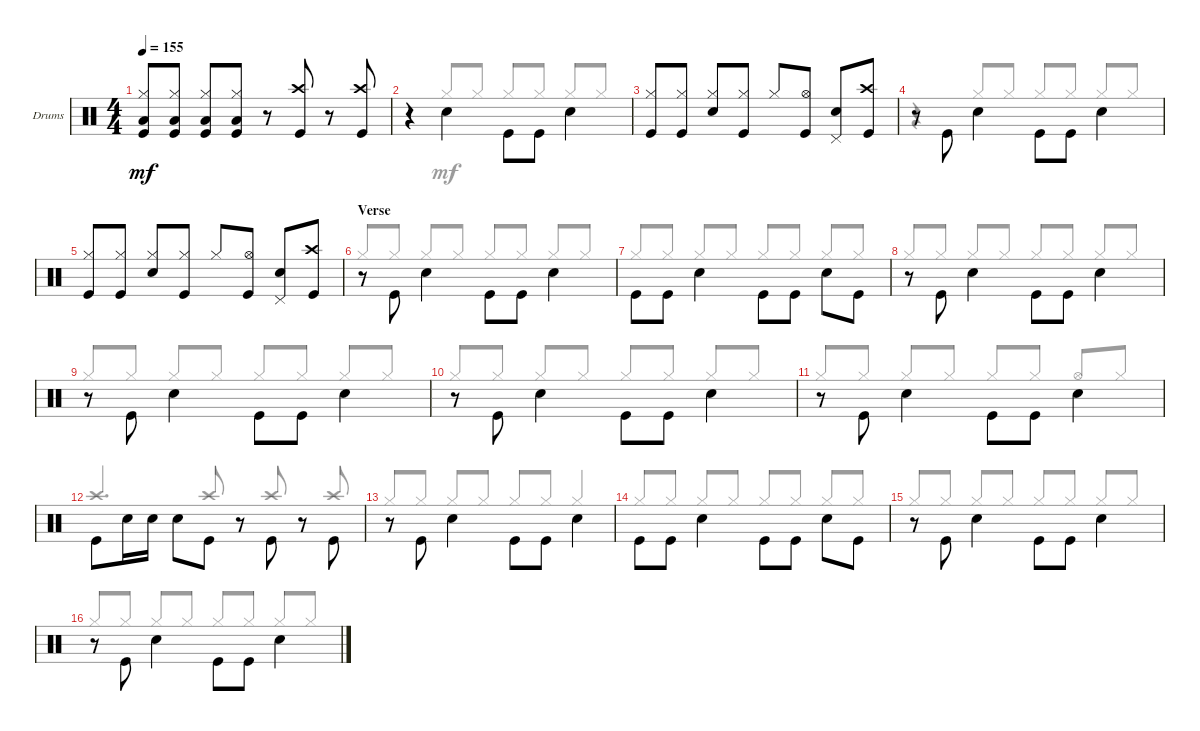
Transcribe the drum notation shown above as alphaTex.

\defaultSystemsLayout 4
\bracketExtendMode groupsimilarinstruments
\firstSystemTrackNameOrientation horizontal
\otherSystemsTrackNameOrientation horizontal
\track ("PETER CRISS" "Drums") {instrument percussion}
\staff {score}
\articulation defaults
\voice
\ts (4 4)
\tempo 155
\clef neutral
\ks c
("Hi-Hat (closed)" "Low Tom (hit)" "Kick (hit)").8{dy mf beam invert} ("Hi-Hat (closed)" "Low Tom (hit)" "Kick (hit)").8 ("Hi-Hat (closed)" "Low Tom (hit)" "Kick (hit)").8{beam invert} ("Hi-Hat (closed)" "Low Tom (hit)" "Kick (hit)").8 r.8 ("Kick (hit)" "Crash high (hit)").8{beam invert} r.8 ("Crash high (hit)" "Kick (hit)").8{beam invert} |
r.4 "Snare (hit) 2".4{beam invert} "Kick (hit)".8{beam invert} "Kick (hit)".8 "Snare (hit) 2".4{beam invert} |
("Hi-Hat (closed)" "Kick (hit)").8{beam invert} ("Hi-Hat (closed)" "Kick (hit)").8 ("Hi-Hat (closed)" "Snare (hit) 2").8{beam invert} ("Hi-Hat (closed)" "Kick (hit)").8 "Hi-Hat (closed)".8{beam invert} ("Hi-Hat (open)" "Kick (hit)").8 ("Pedal Hi-Hat (hit)" "Snare (hit) 2").8{beam invert} ("Crash high (hit)" "Kick (hit)").8 |
r.8 "Kick (hit)".8{beam invert} "Snare (hit) 2".4{beam invert} "Kick (hit)".8{beam invert} "Kick (hit)".8 "Snare (hit) 2".4{beam invert} |
("Hi-Hat (closed)" "Kick (hit)").8{beam invert} ("Hi-Hat (closed)" "Kick (hit)").8 ("Hi-Hat (closed)" "Snare (hit) 2").8{beam invert} ("Hi-Hat (closed)" "Kick (hit)").8 "Hi-Hat (closed)".8{beam invert} ("Hi-Hat (open)" "Kick (hit)").8 ("Pedal Hi-Hat (hit)" "Snare (hit) 2").8{beam invert} ("Crash high (hit)" "Kick (hit)").8 |
\section ("" "Verse")
r.8 "Kick (hit)".8{beam invert} "Snare (hit) 2".4{beam invert} "Kick (hit)".8{beam invert} "Kick (hit)".8 "Snare (hit) 2".4{beam invert} |
"Kick (hit)".8{beam invert} "Kick (hit)".8 "Snare (hit) 2".4{beam invert} "Kick (hit)".8{beam invert} "Kick (hit)".8 "Snare (hit) 2".8{beam invert} "Kick (hit)".8 |
r.8 "Kick (hit)".8{beam invert} "Snare (hit) 2".4{beam invert} "Kick (hit)".8{beam invert} "Kick (hit)".8 "Snare (hit) 2".4{beam invert} |
r.8 "Kick (hit)".8{beam invert} "Snare (hit) 2".4{beam invert} "Kick (hit)".8{beam invert} "Kick (hit)".8 "Snare (hit) 2".4{beam invert} |
r.8 "Kick (hit)".8{beam invert} "Snare (hit) 2".4{beam invert} "Kick (hit)".8{beam invert} "Kick (hit)".8 "Snare (hit) 2".4{beam invert} |
r.8 "Kick (hit)".8{beam invert} "Snare (hit) 2".4{beam invert} "Kick (hit)".8{beam invert} "Kick (hit)".8 "Snare (hit) 2".4{beam invert} |
"Kick (hit)".8{beam invert} "Snare (hit) 2".16 "Snare (hit) 2".16 "Snare (hit) 2".8{beam invert} "Kick (hit)".8 r.8 "Kick (hit)".8{beam invert} r.8 "Kick (hit)".8{beam invert} |
r.8 "Kick (hit)".8{beam invert} "Snare (hit) 2".4{beam invert} "Kick (hit)".8{beam invert} "Kick (hit)".8 "Snare (hit) 2".4{beam invert} |
"Kick (hit)".8{beam invert} "Kick (hit)".8 "Snare (hit) 2".4{beam invert} "Kick (hit)".8{beam invert} "Kick (hit)".8 "Snare (hit) 2".8{beam invert} "Kick (hit)".8 |
r.8 "Kick (hit)".8{beam invert} "Snare (hit) 2".4{beam invert} "Kick (hit)".8{beam invert} "Kick (hit)".8 "Snare (hit) 2".4{beam invert} |
r.8 "Kick (hit)".8{beam invert} "Snare (hit) 2".4{beam invert} "Kick (hit)".8{beam invert} "Kick (hit)".8 "Snare (hit) 2".4{beam invert}
\voice
\clef neutral
\ottava regular
\simile none
\ks c
|
r.4 "Hi-Hat (closed)".8{beam invert} "Hi-Hat (closed)".8 "Hi-Hat (closed)".8{beam invert} "Hi-Hat (closed)".8 "Hi-Hat (closed)".8{beam invert} "Hi-Hat (closed)".8 |
|
r.4 "Hi-Hat (closed)".8{beam invert} "Hi-Hat (closed)".8 "Hi-Hat (closed)".8{beam invert} "Hi-Hat (closed)".8 "Hi-Hat (closed)".8{beam invert} "Hi-Hat (closed)".8 |
|
"Hi-Hat (closed)".8{beam invert} "Hi-Hat (closed)".8 "Hi-Hat (closed)".8{beam invert} "Hi-Hat (closed)".8 "Hi-Hat (closed)".8{beam invert} "Hi-Hat (closed)".8 "Hi-Hat (closed)".8{beam invert} "Hi-Hat (closed)".8 |
"Hi-Hat (closed)".8{beam invert} "Hi-Hat (closed)".8 "Hi-Hat (closed)".8{beam invert} "Hi-Hat (closed)".8 "Hi-Hat (closed)".8{beam invert} "Hi-Hat (closed)".8 "Hi-Hat (closed)".8{beam invert} "Hi-Hat (closed)".8 |
"Hi-Hat (closed)".8{beam invert} "Hi-Hat (closed)".8 "Hi-Hat (closed)".8{beam invert} "Hi-Hat (closed)".8 "Hi-Hat (closed)".8{beam invert} "Hi-Hat (closed)".8 "Hi-Hat (closed)".8{beam invert} "Hi-Hat (closed)".8 |
"Hi-Hat (closed)".8{beam invert} "Hi-Hat (closed)".8 "Hi-Hat (closed)".8{beam invert} "Hi-Hat (closed)".8 "Hi-Hat (closed)".8{beam invert} "Hi-Hat (closed)".8 "Hi-Hat (closed)".8{beam invert} "Hi-Hat (closed)".8 |
"Hi-Hat (closed)".8{beam invert} "Hi-Hat (closed)".8 "Hi-Hat (closed)".8{beam invert} "Hi-Hat (closed)".8 "Hi-Hat (closed)".8{beam invert} "Hi-Hat (closed)".8 "Hi-Hat (closed)".8{beam invert} "Hi-Hat (closed)".8 |
"Hi-Hat (closed)".8{beam invert} "Hi-Hat (closed)".8 "Hi-Hat (closed)".8{beam invert} "Hi-Hat (closed)".8 "Hi-Hat (closed)".8{beam invert} "Hi-Hat (closed)".8 "Hi-Hat (open)".8{beam invert} "Hi-Hat (closed)".8 |
"Crash high (hit)".4{d beam invert} "Crash high (hit)".8{beam invert} r.8 "Crash high (hit)".8{beam invert} r.8 "Crash high (hit)".8{beam invert} |
"Hi-Hat (closed)".8{beam invert} "Hi-Hat (closed)".8 "Hi-Hat (closed)".8{beam invert} "Hi-Hat (closed)".8 "Hi-Hat (closed)".8{beam invert} "Hi-Hat (closed)".8 "Hi-Hat (closed)".4{beam invert} |
"Hi-Hat (closed)".8{beam invert} "Hi-Hat (closed)".8 "Hi-Hat (closed)".8{beam invert} "Hi-Hat (closed)".8 "Hi-Hat (closed)".8{beam invert} "Hi-Hat (closed)".8 "Hi-Hat (closed)".8{beam invert} "Hi-Hat (closed)".8 |
"Hi-Hat (closed)".8{beam invert} "Hi-Hat (closed)".8 "Hi-Hat (closed)".8{beam invert} "Hi-Hat (closed)".8 "Hi-Hat (closed)".8{beam invert} "Hi-Hat (closed)".8 "Hi-Hat (closed)".8{beam invert} "Hi-Hat (closed)".8 |
"Hi-Hat (closed)".8{beam invert} "Hi-Hat (closed)".8 "Hi-Hat (closed)".8{beam invert} "Hi-Hat (closed)".8 "Hi-Hat (closed)".8{beam invert} "Hi-Hat (closed)".8 "Hi-Hat (closed)".8{beam invert} "Hi-Hat (closed)".8
